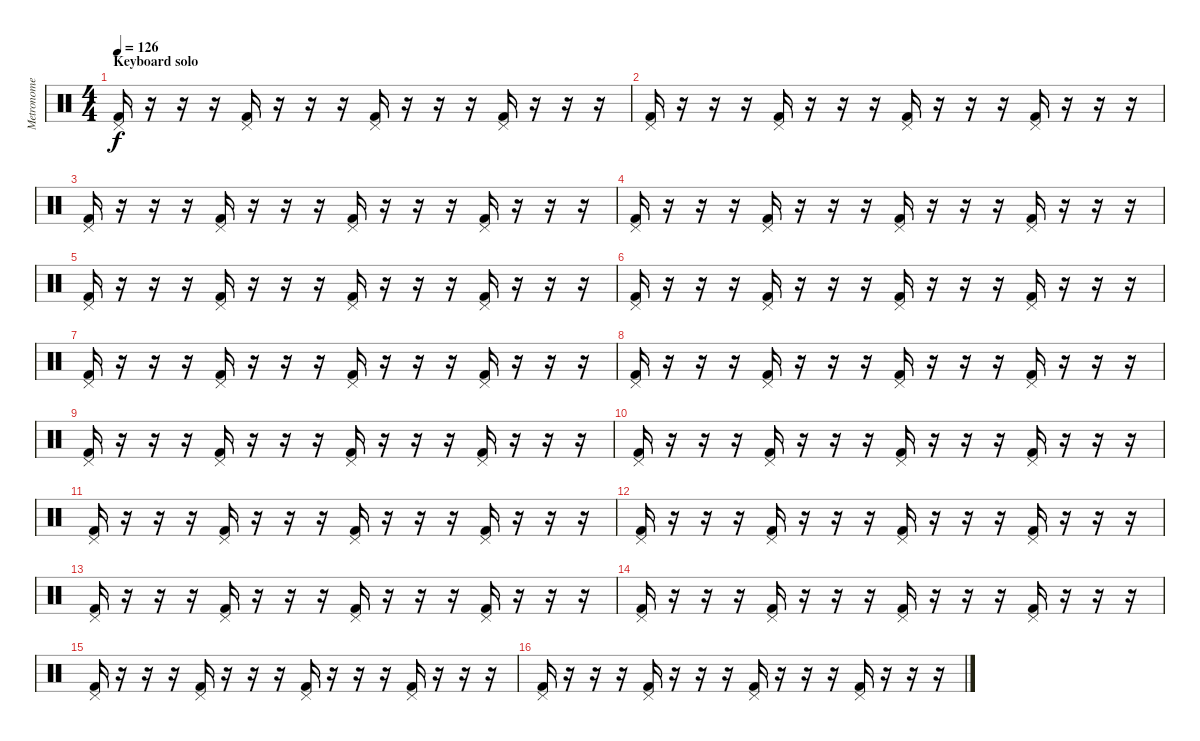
\track ("Metronome" "Metronome") {mute instrument percussion}
\staff {score}
\articulation defaults
\ts (4 4)
\section ("" "Keyboard solo")
\tempo 126
\clef neutral
\ks c
("Pedal Hi-Hat (hit)" "Kick (hit) 2").16{dy f} r.16 r.16 r.16 ("Pedal Hi-Hat (hit)" "Kick (hit) 2").16 r.16 r.16 r.16 ("Pedal Hi-Hat (hit)" "Kick (hit) 2").16 r.16 r.16 r.16 ("Pedal Hi-Hat (hit)" "Kick (hit) 2").16 r.16 r.16 r.16 |
("Pedal Hi-Hat (hit)" "Kick (hit) 2").16 r.16 r.16 r.16 ("Pedal Hi-Hat (hit)" "Kick (hit) 2").16 r.16 r.16 r.16 ("Pedal Hi-Hat (hit)" "Kick (hit) 2").16 r.16 r.16 r.16 ("Pedal Hi-Hat (hit)" "Kick (hit) 2").16 r.16 r.16 r.16 |
("Pedal Hi-Hat (hit)" "Kick (hit) 2").16 r.16 r.16 r.16 ("Pedal Hi-Hat (hit)" "Kick (hit) 2").16 r.16 r.16 r.16 ("Pedal Hi-Hat (hit)" "Kick (hit) 2").16 r.16 r.16 r.16 ("Pedal Hi-Hat (hit)" "Kick (hit) 2").16 r.16 r.16 r.16 |
("Pedal Hi-Hat (hit)" "Kick (hit) 2").16 r.16 r.16 r.16 ("Pedal Hi-Hat (hit)" "Kick (hit) 2").16 r.16 r.16 r.16 ("Pedal Hi-Hat (hit)" "Kick (hit) 2").16 r.16 r.16 r.16 ("Pedal Hi-Hat (hit)" "Kick (hit) 2").16 r.16 r.16 r.16 |
("Pedal Hi-Hat (hit)" "Kick (hit) 2").16 r.16 r.16 r.16 ("Pedal Hi-Hat (hit)" "Kick (hit) 2").16 r.16 r.16 r.16 ("Pedal Hi-Hat (hit)" "Kick (hit) 2").16 r.16 r.16 r.16 ("Pedal Hi-Hat (hit)" "Kick (hit) 2").16 r.16 r.16 r.16 |
("Pedal Hi-Hat (hit)" "Kick (hit) 2").16 r.16 r.16 r.16 ("Pedal Hi-Hat (hit)" "Kick (hit) 2").16 r.16 r.16 r.16 ("Pedal Hi-Hat (hit)" "Kick (hit) 2").16 r.16 r.16 r.16 ("Pedal Hi-Hat (hit)" "Kick (hit) 2").16 r.16 r.16 r.16 |
("Pedal Hi-Hat (hit)" "Kick (hit) 2").16 r.16 r.16 r.16 ("Pedal Hi-Hat (hit)" "Kick (hit) 2").16 r.16 r.16 r.16 ("Pedal Hi-Hat (hit)" "Kick (hit) 2").16 r.16 r.16 r.16 ("Pedal Hi-Hat (hit)" "Kick (hit) 2").16 r.16 r.16 r.16 |
("Pedal Hi-Hat (hit)" "Kick (hit) 2").16 r.16 r.16 r.16 ("Pedal Hi-Hat (hit)" "Kick (hit) 2").16 r.16 r.16 r.16 ("Pedal Hi-Hat (hit)" "Kick (hit) 2").16 r.16 r.16 r.16 ("Pedal Hi-Hat (hit)" "Kick (hit) 2").16 r.16 r.16 r.16 |
("Pedal Hi-Hat (hit)" "Kick (hit) 2").16 r.16 r.16 r.16 ("Pedal Hi-Hat (hit)" "Kick (hit) 2").16 r.16 r.16 r.16 ("Pedal Hi-Hat (hit)" "Kick (hit) 2").16 r.16 r.16 r.16 ("Pedal Hi-Hat (hit)" "Kick (hit) 2").16 r.16 r.16 r.16 |
("Pedal Hi-Hat (hit)" "Kick (hit) 2").16 r.16 r.16 r.16 ("Pedal Hi-Hat (hit)" "Kick (hit) 2").16 r.16 r.16 r.16 ("Pedal Hi-Hat (hit)" "Kick (hit) 2").16 r.16 r.16 r.16 ("Pedal Hi-Hat (hit)" "Kick (hit) 2").16 r.16 r.16 r.16 |
("Pedal Hi-Hat (hit)" "Kick (hit) 2").16 r.16 r.16 r.16 ("Pedal Hi-Hat (hit)" "Kick (hit) 2").16 r.16 r.16 r.16 ("Pedal Hi-Hat (hit)" "Kick (hit) 2").16 r.16 r.16 r.16 ("Pedal Hi-Hat (hit)" "Kick (hit) 2").16 r.16 r.16 r.16 |
("Pedal Hi-Hat (hit)" "Kick (hit) 2").16 r.16 r.16 r.16 ("Pedal Hi-Hat (hit)" "Kick (hit) 2").16 r.16 r.16 r.16 ("Pedal Hi-Hat (hit)" "Kick (hit) 2").16 r.16 r.16 r.16 ("Pedal Hi-Hat (hit)" "Kick (hit) 2").16 r.16 r.16 r.16 |
("Pedal Hi-Hat (hit)" "Kick (hit) 2").16 r.16 r.16 r.16 ("Pedal Hi-Hat (hit)" "Kick (hit) 2").16 r.16 r.16 r.16 ("Pedal Hi-Hat (hit)" "Kick (hit) 2").16 r.16 r.16 r.16 ("Pedal Hi-Hat (hit)" "Kick (hit) 2").16 r.16 r.16 r.16 |
("Pedal Hi-Hat (hit)" "Kick (hit) 2").16 r.16 r.16 r.16 ("Pedal Hi-Hat (hit)" "Kick (hit) 2").16 r.16 r.16 r.16 ("Pedal Hi-Hat (hit)" "Kick (hit) 2").16 r.16 r.16 r.16 ("Pedal Hi-Hat (hit)" "Kick (hit) 2").16 r.16 r.16 r.16 |
("Pedal Hi-Hat (hit)" "Kick (hit) 2").16 r.16 r.16 r.16 ("Pedal Hi-Hat (hit)" "Kick (hit) 2").16 r.16 r.16 r.16 ("Pedal Hi-Hat (hit)" "Kick (hit) 2").16 r.16 r.16 r.16 ("Pedal Hi-Hat (hit)" "Kick (hit) 2").16 r.16 r.16 r.16 |
("Pedal Hi-Hat (hit)" "Kick (hit) 2").16 r.16 r.16 r.16 ("Pedal Hi-Hat (hit)" "Kick (hit) 2").16 r.16 r.16 r.16 ("Pedal Hi-Hat (hit)" "Kick (hit) 2").16 r.16 r.16 r.16 ("Pedal Hi-Hat (hit)" "Kick (hit) 2").16 r.16 r.16 r.16
